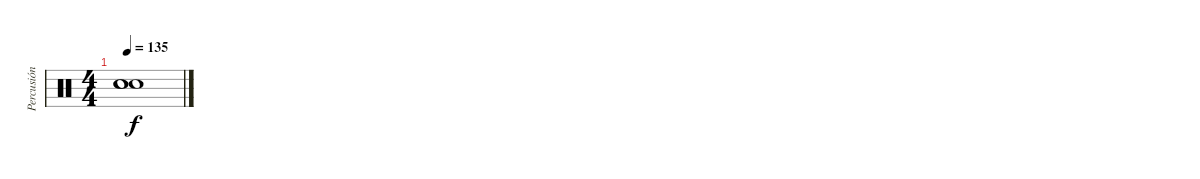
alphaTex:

\track ("Percusión" "Percusión") {instrument percussion}
\staff {score}
\articulation defaults
\ts (4 4)
\tempo 135
\clef neutral
\ks c
("Snare (hit)"{t} "Snare (hit)"{t} "Snare (hit)"{t}).1{dy f}
